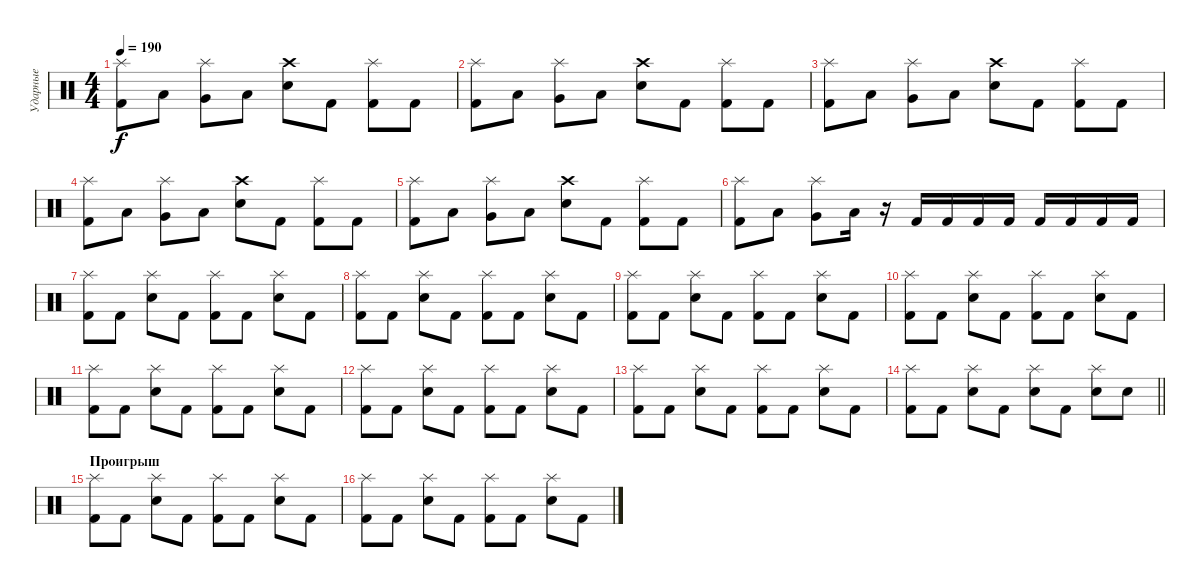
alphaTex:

\track ("Ударные" "Ударные") {instrument percussion}
\staff {score}
\articulation defaults
\ts (4 4)
\tempo 190
\clef neutral
\ks c
("Splash (hit)" "Kick (hit) 2").8{dy f} "Low Tom (hit)".8 ("Splash (hit)" "Very Low Tom (hit)").8 "Low Floor Tom (hit)".8 ("Crash high (hit)" "Electric Snare (hit)").8 "Kick (hit) 2".8 ("Splash (hit)" "Kick (hit) 2").8 "Kick (hit) 2".8 |
("Splash (hit)" "Kick (hit) 2").8 "Low Tom (hit)".8 ("Splash (hit)" "Very Low Tom (hit)").8 "Low Floor Tom (hit)".8 ("Crash high (hit)" "Electric Snare (hit)").8 "Kick (hit) 2".8 ("Splash (hit)" "Kick (hit) 2").8 "Kick (hit) 2".8 |
("Splash (hit)" "Kick (hit) 2").8 "Low Tom (hit)".8 ("Splash (hit)" "Very Low Tom (hit)").8 "Low Floor Tom (hit)".8 ("Crash high (hit)" "Electric Snare (hit)").8 "Kick (hit) 2".8 ("Splash (hit)" "Kick (hit) 2").8 "Kick (hit) 2".8 |
("Splash (hit)" "Kick (hit) 2").8 "Low Tom (hit)".8 ("Splash (hit)" "Very Low Tom (hit)").8 "Low Floor Tom (hit)".8 ("Crash high (hit)" "Electric Snare (hit)").8 "Kick (hit) 2".8 ("Splash (hit)" "Kick (hit) 2").8 "Kick (hit) 2".8 |
("Splash (hit)" "Kick (hit) 2").8 "Low Tom (hit)".8 ("Splash (hit)" "Very Low Tom (hit)").8 "Low Floor Tom (hit)".8 ("Crash high (hit)" "Electric Snare (hit)").8 "Kick (hit) 2".8 ("Splash (hit)" "Kick (hit) 2").8 "Kick (hit) 2".8 |
("Splash (hit)" "Kick (hit) 2").8 "Low Tom (hit)".8 ("Splash (hit)" "Very Low Tom (hit)").8 "Low Floor Tom (hit)".16 r.16 "Kick (hit) 2".16 "Kick (hit) 2".16 "Kick (hit) 2".16 "Kick (hit) 2".16 "Kick (hit) 2".16 "Kick (hit) 2".16 "Kick (hit) 2".16 "Kick (hit) 2".16 |
("Splash (hit)" "Kick (hit) 2").8 "Kick (hit) 2".8 ("Splash (hit)" "Electric Snare (hit)").8 "Kick (hit) 2".8 ("Splash (hit)" "Kick (hit) 2").8 "Kick (hit) 2".8 ("Splash (hit)" "Electric Snare (hit)").8 "Kick (hit) 2".8 |
("Splash (hit)" "Kick (hit) 2").8 "Kick (hit) 2".8 ("Splash (hit)" "Electric Snare (hit)").8 "Kick (hit) 2".8 ("Splash (hit)" "Kick (hit) 2").8 "Kick (hit) 2".8 ("Splash (hit)" "Electric Snare (hit)").8 "Kick (hit) 2".8 |
("Splash (hit)" "Kick (hit) 2").8 "Kick (hit) 2".8 ("Splash (hit)" "Electric Snare (hit)").8 "Kick (hit) 2".8 ("Splash (hit)" "Kick (hit) 2").8 "Kick (hit) 2".8 ("Splash (hit)" "Electric Snare (hit)").8 "Kick (hit) 2".8 |
("Splash (hit)" "Kick (hit) 2").8 "Kick (hit) 2".8 ("Splash (hit)" "Electric Snare (hit)").8 "Kick (hit) 2".8 ("Splash (hit)" "Kick (hit) 2").8 "Kick (hit) 2".8 ("Splash (hit)" "Electric Snare (hit)").8 "Kick (hit) 2".8 |
("Splash (hit)" "Kick (hit) 2").8 "Kick (hit) 2".8 ("Splash (hit)" "Electric Snare (hit)").8 "Kick (hit) 2".8 ("Splash (hit)" "Kick (hit) 2").8 "Kick (hit) 2".8 ("Splash (hit)" "Electric Snare (hit)").8 "Kick (hit) 2".8 |
("Splash (hit)" "Kick (hit) 2").8 "Kick (hit) 2".8 ("Splash (hit)" "Electric Snare (hit)").8 "Kick (hit) 2".8 ("Splash (hit)" "Kick (hit) 2").8 "Kick (hit) 2".8 ("Splash (hit)" "Electric Snare (hit)").8 "Kick (hit) 2".8 |
("Splash (hit)" "Kick (hit) 2").8 "Kick (hit) 2".8 ("Splash (hit)" "Electric Snare (hit)").8 "Kick (hit) 2".8 ("Splash (hit)" "Kick (hit) 2").8 "Kick (hit) 2".8 ("Splash (hit)" "Electric Snare (hit)").8 "Kick (hit) 2".8 |
\barLineRight lightlight
("Splash (hit)" "Kick (hit) 2").8 "Kick (hit) 2".8 ("Splash (hit)" "Electric Snare (hit)").8 "Kick (hit) 2".8 ("Splash (hit)" "Electric Snare (hit)").8 "Kick (hit) 2".8 ("Splash (hit)" "Electric Snare (hit)").8 "Electric Snare (hit)".8 |
\section ("" "Проигрыш")
("Splash (hit)" "Kick (hit) 2").8 "Kick (hit) 2".8 ("Splash (hit)" "Electric Snare (hit)").8 "Kick (hit) 2".8 ("Splash (hit)" "Kick (hit) 2").8 "Kick (hit) 2".8 ("Splash (hit)" "Electric Snare (hit)").8 "Kick (hit) 2".8 |
("Splash (hit)" "Kick (hit) 2").8 "Kick (hit) 2".8 ("Splash (hit)" "Electric Snare (hit)").8 "Kick (hit) 2".8 ("Splash (hit)" "Kick (hit) 2").8 "Kick (hit) 2".8 ("Splash (hit)" "Electric Snare (hit)").8 "Kick (hit) 2".8
